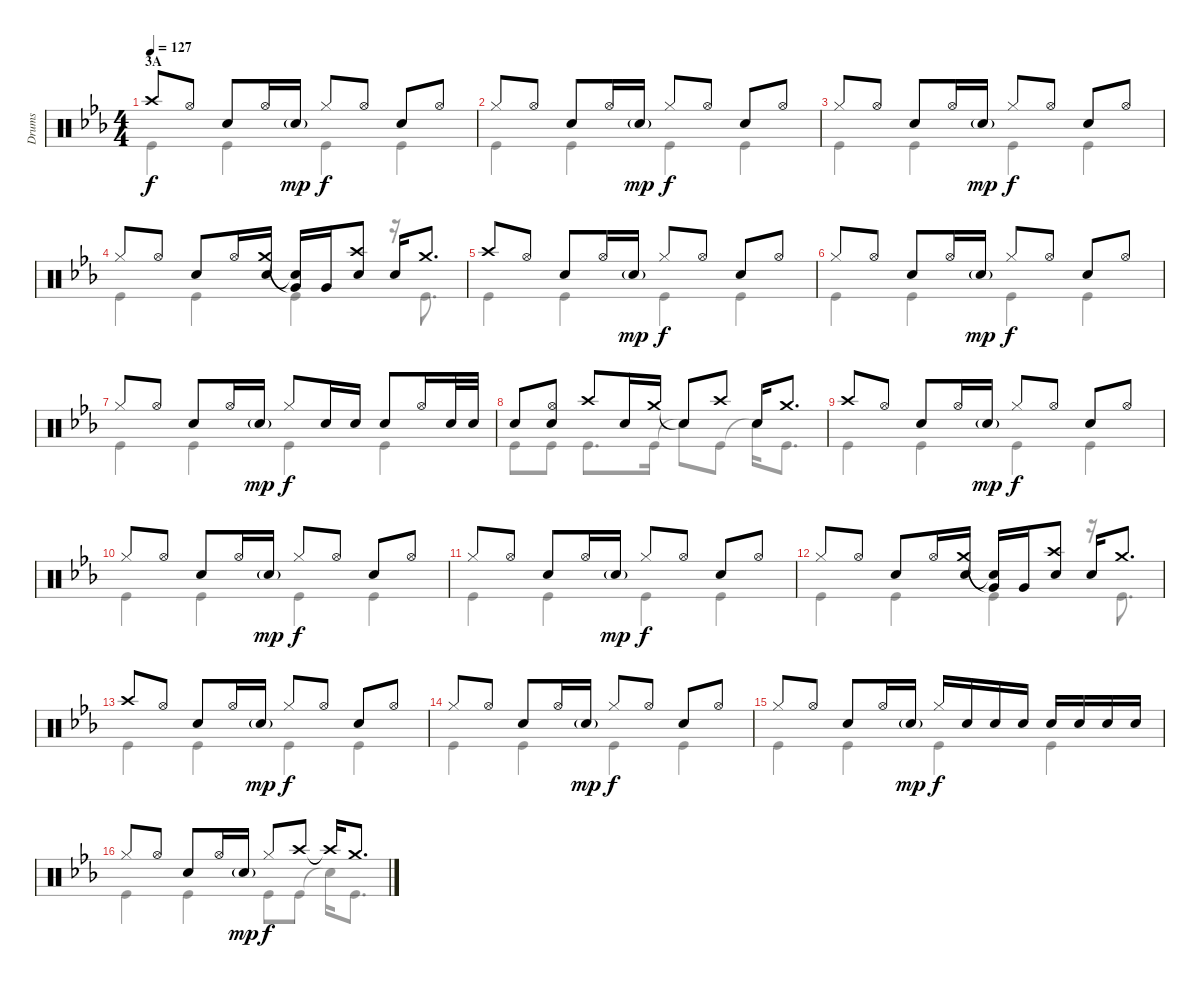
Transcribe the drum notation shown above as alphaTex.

\track ("Drums" "Drums") {instrument percussion}
\staff {score}
\articulation defaults
\voice
\ts (4 4)
\section ("" "3A")
\tempo 127
\clef neutral
\ks eb "Crash high (hit)".8{dy f} "Hi-Hat (open)".8 "Snare (hit) 2".8 "Hi-Hat (open)".16 "Snare (hit) 2"{g}.16{dy mp} "Hi-Hat (closed)".8{dy f} "Hi-Hat (open)".8 "Snare (hit) 2".8 "Hi-Hat (open)".8
|
"Hi-Hat (closed)".8 "Hi-Hat (open)".8 "Snare (hit) 2".8 "Hi-Hat (open)".16 "Snare (hit) 2"{g}.16{dy mp} "Hi-Hat (closed)".8{dy f} "Hi-Hat (open)".8 "Snare (hit) 2".8 "Hi-Hat (open)".8 |
"Hi-Hat (closed)".8 "Hi-Hat (open)".8 "Snare (hit) 2".8 "Hi-Hat (open)".16 "Snare (hit) 2"{g}.16{dy mp} "Hi-Hat (closed)".8{dy f} "Hi-Hat (open)".8 "Snare (hit) 2".8 "Hi-Hat (open)".8 |
"Hi-Hat (closed)".8 "Hi-Hat (open)".8 "Snare (hit) 2".8 "Hi-Hat (open)".16 ("Crash medium (hit)" "Snare (hit) 2").16 ("Very Low Tom (hit)"{t} "Snare (hit)"{t}).16 "Very Low Tom (hit)".16 ("Crash high (hit)" "Snare (hit) 2").8 "Snare (hit) 2".16 "Crash medium (hit)".8{d} |
"Crash high (hit)".8 "Hi-Hat (open)".8 "Snare (hit) 2".8 "Hi-Hat (open)".16 "Snare (hit) 2"{g}.16{dy mp} "Hi-Hat (closed)".8{dy f} "Hi-Hat (open)".8 "Snare (hit) 2".8 "Hi-Hat (open)".8 |
"Hi-Hat (closed)".8 "Hi-Hat (open)".8 "Snare (hit) 2".8 "Hi-Hat (open)".16 "Snare (hit) 2"{g}.16{dy mp} "Hi-Hat (closed)".8{dy f} "Hi-Hat (open)".8 "Snare (hit) 2".8 "Hi-Hat (open)".8 |
"Hi-Hat (closed)".8 "Hi-Hat (open)".8 "Snare (hit) 2".8 "Hi-Hat (open)".16 "Snare (hit) 2"{g}.16{dy mp} "Hi-Hat (closed)".8{dy f} "Snare (hit) 2".16 "Snare (hit) 2".16 "Snare (hit) 2".8 "Hi-Hat (open)".16 "Snare (hit) 2".32 "Snare (hit) 2".32 |
"Snare (hit) 2".8 ("Hi-Hat (open)" "Snare (hit) 2").8 "Crash high (hit)".8 "Snare (hit) 2".16 "Crash medium (hit)".16 "Snare (hit)"{t}.8 "Crash high (hit)".8 "Snare (hit) 2".16 "Crash medium (hit)".8{d} |
"Crash high (hit)".8 "Hi-Hat (open)".8 "Snare (hit) 2".8 "Hi-Hat (open)".16 "Snare (hit) 2"{g}.16{dy mp} "Hi-Hat (closed)".8{dy f} "Hi-Hat (open)".8 "Snare (hit) 2".8 "Hi-Hat (open)".8 |
"Hi-Hat (closed)".8 "Hi-Hat (open)".8 "Snare (hit) 2".8 "Hi-Hat (open)".16 "Snare (hit) 2"{g}.16{dy mp} "Hi-Hat (closed)".8{dy f} "Hi-Hat (open)".8 "Snare (hit) 2".8 "Hi-Hat (open)".8 |
"Hi-Hat (closed)".8 "Hi-Hat (open)".8 "Snare (hit) 2".8 "Hi-Hat (open)".16 "Snare (hit) 2"{g}.16{dy mp} "Hi-Hat (closed)".8{dy f} "Hi-Hat (open)".8 "Snare (hit) 2".8 "Hi-Hat (open)".8 |
"Hi-Hat (closed)".8 "Hi-Hat (open)".8 "Snare (hit) 2".8 "Hi-Hat (open)".16 ("Crash medium (hit)" "Snare (hit) 2").16 ("Very Low Tom (hit)"{t} "Snare (hit)"{t}).16 "Very Low Tom (hit)".16 ("Crash high (hit)" "Snare (hit) 2").8 "Snare (hit) 2".16 "Crash medium (hit)".8{d} |
"Crash high (hit)".8 "Hi-Hat (open)".8 "Snare (hit) 2".8 "Hi-Hat (open)".16 "Snare (hit) 2"{g}.16{dy mp} "Hi-Hat (closed)".8{dy f} "Hi-Hat (open)".8 "Snare (hit) 2".8 "Hi-Hat (open)".8 |
"Hi-Hat (closed)".8 "Hi-Hat (open)".8 "Snare (hit) 2".8 "Hi-Hat (open)".16 "Snare (hit) 2"{g}.16{dy mp} "Hi-Hat (closed)".8{dy f} "Hi-Hat (open)".8 "Snare (hit) 2".8 "Hi-Hat (open)".8 |
"Hi-Hat (closed)".8 "Hi-Hat (open)".8 "Snare (hit) 2".8 "Hi-Hat (open)".16 "Snare (hit) 2"{g}.16{dy mp} "Hi-Hat (closed)".16{dy f} "Snare (hit) 2".16 "Snare (hit) 2".16 "Snare (hit) 2".16 "Snare (hit) 2".16 "Snare (hit) 2".16 "Snare (hit) 2".16 "Snare (hit) 2".16 |
"Hi-Hat (closed)".8 "Hi-Hat (open)".8 "Snare (hit) 2".8 "Hi-Hat (open)".16 "Snare (hit) 2"{g}.16{dy mp} "Hi-Hat (closed)".8{dy f} "Crash high (hit)".8 "Crash high (hit)"{t}.16 "Crash medium (hit)".8{d}
\voice
\clef neutral
\ottava regular
\simile none
\ks eb "Kick (hit)".4{dy f} "Kick (hit)".4 "Kick (hit)".4 "Kick (hit)".4
|
"Kick (hit)".4 "Kick (hit)".4 "Kick (hit)".4 "Kick (hit)".4 |
"Kick (hit)".4 "Kick (hit)".4 "Kick (hit)".4 "Kick (hit)".4 |
"Kick (hit)".4 "Kick (hit)".4 "Kick (hit)".4 r.16 "Kick (hit)".8{d} |
"Kick (hit)".4 "Kick (hit)".4 "Kick (hit)".4 "Kick (hit)".4 |
"Kick (hit)".4 "Kick (hit)".4 "Kick (hit)".4 "Kick (hit)".4 |
"Kick (hit)".4 "Kick (hit)".4 "Kick (hit)".4 "Kick (hit)".4 |
"Kick (hit)".8 "Kick (hit)".8 "Kick (hit)".8{d} "Kick (hit)".16 "Snare (hit)"{t}.8 "Kick (hit)".8 "Snare (hit)"{t}.16 "Kick (hit)".8{d} |
"Kick (hit)".4 "Kick (hit)".4 "Kick (hit)".4 "Kick (hit)".4 |
"Kick (hit)".4 "Kick (hit)".4 "Kick (hit)".4 "Kick (hit)".4 |
"Kick (hit)".4 "Kick (hit)".4 "Kick (hit)".4 "Kick (hit)".4 |
"Kick (hit)".4 "Kick (hit)".4 "Kick (hit)".4 r.16 "Kick (hit)".8{d} |
"Kick (hit)".4 "Kick (hit)".4 "Kick (hit)".4 "Kick (hit)".4 |
"Kick (hit)".4 "Kick (hit)".4 "Kick (hit)".4 "Kick (hit)".4 |
"Kick (hit)".4 "Kick (hit)".4 "Kick (hit)".4 "Kick (hit)".4 |
"Kick (hit)".4 "Kick (hit)".4 "Kick (hit)".8 "Kick (hit)".8 "Snare (hit)"{t}.16 "Kick (hit)".8{d}
